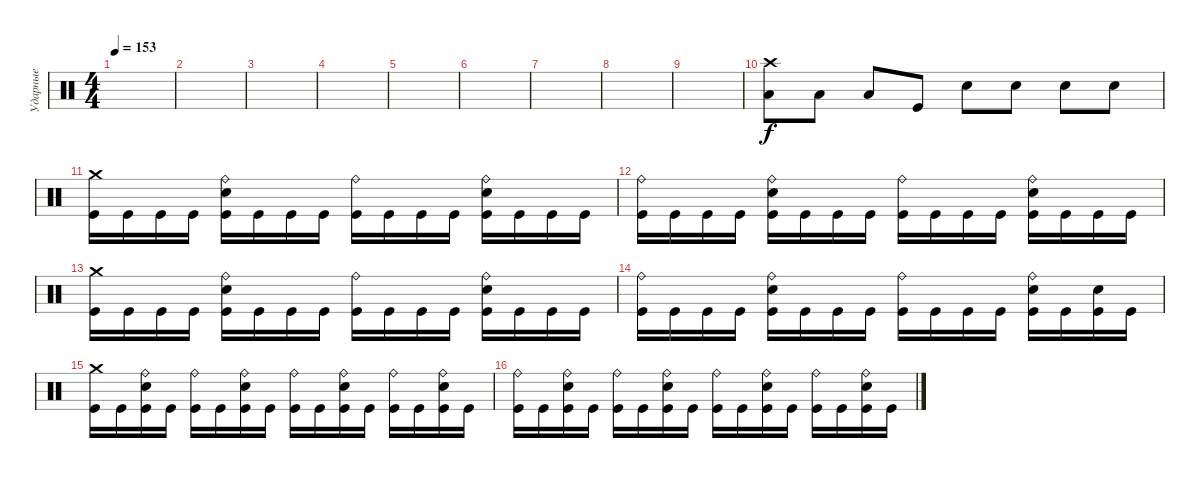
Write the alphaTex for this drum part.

\track ("Ударные" "Ударные") {instrument percussion}
\staff {score}
\articulation defaults
\ts (4 4)
\tempo 153
\clef neutral
\ks c
|
|
|
|
|
|
|
|
|
("Crash high (hit)" "Low Tom (hit)").8 "Low Tom (hit)".8 "Low Tom (hit)".8 "Kick (hit)".8 "Electric Snare (hit)".8 "Electric Snare (hit)".8 "Electric Snare (hit)".8 "Electric Snare (hit)".8 |
("Crash medium (hit)" "Kick (hit)").16 "Kick (hit)".16 "Kick (hit)".16 "Kick (hit)".16 ("Ride (bell)" "Electric Snare (hit)" "Kick (hit)").16 "Kick (hit)".16 "Kick (hit)".16 "Kick (hit)".16 ("Ride (bell)" "Kick (hit)").16 "Kick (hit)".16 "Kick (hit)".16 "Kick (hit)".16 ("Ride (bell)" "Electric Snare (hit)" "Kick (hit)").16 "Kick (hit)".16 "Kick (hit)".16 "Kick (hit)".16 |
("Ride (bell)" "Kick (hit)").16 "Kick (hit)".16 "Kick (hit)".16 "Kick (hit)".16 ("Ride (bell)" "Electric Snare (hit)" "Kick (hit)").16 "Kick (hit)".16 "Kick (hit)".16 "Kick (hit)".16 ("Ride (bell)" "Kick (hit)").16 "Kick (hit)".16 "Kick (hit)".16 "Kick (hit)".16 ("Ride (bell)" "Electric Snare (hit)" "Kick (hit)").16 "Kick (hit)".16 "Kick (hit)".16 "Kick (hit)".16 |
("Crash medium (hit)" "Kick (hit)").16 "Kick (hit)".16 "Kick (hit)".16 "Kick (hit)".16 ("Ride (bell)" "Electric Snare (hit)" "Kick (hit)").16 "Kick (hit)".16 "Kick (hit)".16 "Kick (hit)".16 ("Ride (bell)" "Kick (hit)").16 "Kick (hit)".16 "Kick (hit)".16 "Kick (hit)".16 ("Ride (bell)" "Electric Snare (hit)" "Kick (hit)").16 "Kick (hit)".16 "Kick (hit)".16 "Kick (hit)".16 |
("Ride (bell)" "Kick (hit)").16 "Kick (hit)".16 "Kick (hit)".16 "Kick (hit)".16 ("Ride (bell)" "Electric Snare (hit)" "Kick (hit)").16 "Kick (hit)".16 "Kick (hit)".16 "Kick (hit)".16 ("Ride (bell)" "Kick (hit)").16 "Kick (hit)".16 "Kick (hit)".16 "Kick (hit)".16 ("Ride (bell)" "Electric Snare (hit)" "Kick (hit)").16 "Kick (hit)".16 ("Electric Snare (hit)" "Kick (hit)").16 "Kick (hit)".16 |
("Crash medium (hit)" "Kick (hit)").16 "Kick (hit)".16 ("Ride (bell)" "Electric Snare (hit)" "Kick (hit)").16 "Kick (hit)".16 ("Ride (bell)" "Kick (hit)").16 "Kick (hit)".16 ("Ride (bell)" "Electric Snare (hit)" "Kick (hit)").16 "Kick (hit)".16 ("Ride (bell)" "Kick (hit)").16 "Kick (hit)".16 ("Ride (bell)" "Electric Snare (hit)" "Kick (hit)").16 "Kick (hit)".16 ("Ride (bell)" "Kick (hit)").16 "Kick (hit)".16 ("Ride (bell)" "Electric Snare (hit)" "Kick (hit)").16 "Kick (hit)".16 |
("Ride (bell)" "Kick (hit)").16 "Kick (hit)".16 ("Ride (bell)" "Electric Snare (hit)" "Kick (hit)").16 "Kick (hit)".16 ("Ride (bell)" "Kick (hit)").16 "Kick (hit)".16 ("Ride (bell)" "Electric Snare (hit)" "Kick (hit)").16 "Kick (hit)".16 ("Ride (bell)" "Kick (hit)").16 "Kick (hit)".16 ("Ride (bell)" "Electric Snare (hit)" "Kick (hit)").16 "Kick (hit)".16 ("Ride (bell)" "Kick (hit)").16 "Kick (hit)".16 ("Ride (bell)" "Electric Snare (hit)" "Kick (hit)").16 "Kick (hit)".16
